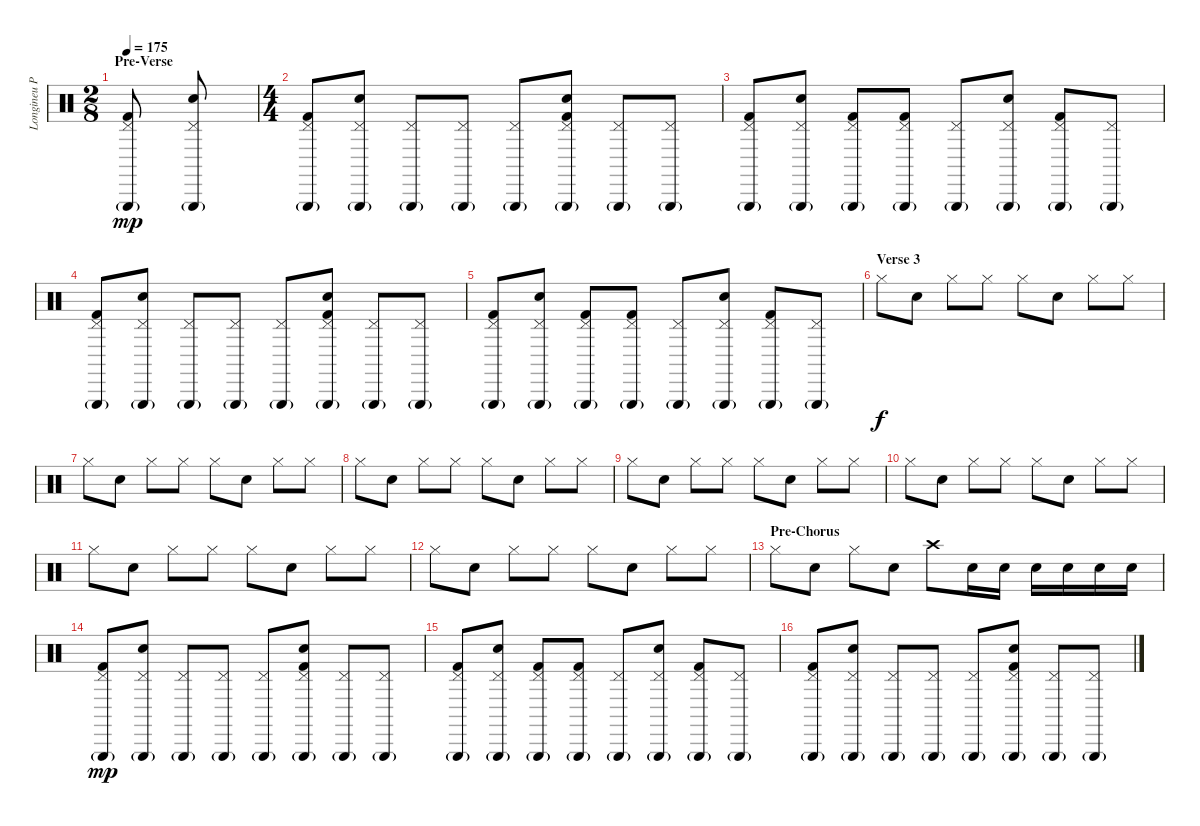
\track ("Longineu Parsons III Drums" "Longineu P") {instrument percussion}
\staff {score}
\articulation defaults
\ts (2 8)
\section ("" "Pre-Verse")
\tempo 175
\clef neutral
\ks c
("Triangle (hit)"{g} "Pedal Hi-Hat (hit)" "Kick (hit) 2").8{dy mp} ("Triangle (hit)"{g} "Pedal Hi-Hat (hit)" "Electric Snare (hit)").8 |
\ts (4 4)
("Triangle (hit)"{g} "Pedal Hi-Hat (hit)" "Kick (hit) 2").8 ("Triangle (hit)"{g} "Pedal Hi-Hat (hit)" "Electric Snare (hit)").8 ("Triangle (hit)"{g} "Pedal Hi-Hat (hit)").8 ("Triangle (hit)"{g} "Pedal Hi-Hat (hit)").8 ("Triangle (hit)"{g} "Pedal Hi-Hat (hit)").8 ("Triangle (hit)"{g} "Pedal Hi-Hat (hit)" "Electric Snare (hit)" "Kick (hit) 2").8 ("Triangle (hit)"{g} "Pedal Hi-Hat (hit)").8 ("Triangle (hit)"{g} "Pedal Hi-Hat (hit)").8 |
("Triangle (hit)"{g} "Pedal Hi-Hat (hit)" "Kick (hit) 2").8 ("Triangle (hit)"{g} "Pedal Hi-Hat (hit)" "Electric Snare (hit)").8 ("Triangle (hit)"{g} "Pedal Hi-Hat (hit)" "Kick (hit) 2").8 ("Triangle (hit)"{g} "Pedal Hi-Hat (hit)" "Kick (hit) 2").8 ("Triangle (hit)"{g} "Pedal Hi-Hat (hit)").8 ("Triangle (hit)"{g} "Pedal Hi-Hat (hit)" "Electric Snare (hit)").8 ("Triangle (hit)"{g} "Pedal Hi-Hat (hit)" "Kick (hit) 2").8 ("Triangle (hit)"{g} "Pedal Hi-Hat (hit)").8 |
("Triangle (hit)"{g} "Pedal Hi-Hat (hit)" "Kick (hit) 2").8 ("Triangle (hit)"{g} "Pedal Hi-Hat (hit)" "Electric Snare (hit)").8 ("Triangle (hit)"{g} "Pedal Hi-Hat (hit)").8 ("Triangle (hit)"{g} "Pedal Hi-Hat (hit)").8 ("Triangle (hit)"{g} "Pedal Hi-Hat (hit)").8 ("Triangle (hit)"{g} "Pedal Hi-Hat (hit)" "Electric Snare (hit)" "Kick (hit) 2").8 ("Triangle (hit)"{g} "Pedal Hi-Hat (hit)").8 ("Triangle (hit)"{g} "Pedal Hi-Hat (hit)").8 |
("Triangle (hit)"{g} "Pedal Hi-Hat (hit)" "Kick (hit) 2").8 ("Triangle (hit)"{g} "Pedal Hi-Hat (hit)" "Electric Snare (hit)").8 ("Triangle (hit)"{g} "Pedal Hi-Hat (hit)" "Kick (hit) 2").8 ("Triangle (hit)"{g} "Pedal Hi-Hat (hit)" "Kick (hit) 2").8 ("Triangle (hit)"{g} "Pedal Hi-Hat (hit)").8 ("Triangle (hit)"{g} "Pedal Hi-Hat (hit)" "Electric Snare (hit)").8 ("Triangle (hit)"{g} "Pedal Hi-Hat (hit)" "Kick (hit) 2").8 ("Triangle (hit)"{g} "Pedal Hi-Hat (hit)").8 |
\section ("" "Verse 3")
"Hi-Hat (closed)".8{dy f} "Snare (hit) 2".8 "Hi-Hat (closed)".8 "Hi-Hat (closed)".8 "Hi-Hat (closed)".8 "Snare (hit) 2".8 "Hi-Hat (closed)".8 "Hi-Hat (closed)".8 |
"Hi-Hat (closed)".8 "Snare (hit) 2".8 "Hi-Hat (closed)".8 "Hi-Hat (closed)".8 "Hi-Hat (closed)".8 "Snare (hit) 2".8 "Hi-Hat (closed)".8 "Hi-Hat (closed)".8 |
"Hi-Hat (closed)".8 "Snare (hit) 2".8 "Hi-Hat (closed)".8 "Hi-Hat (closed)".8 "Hi-Hat (closed)".8 "Snare (hit) 2".8 "Hi-Hat (closed)".8 "Hi-Hat (closed)".8 |
"Hi-Hat (closed)".8 "Snare (hit) 2".8 "Hi-Hat (closed)".8 "Hi-Hat (closed)".8 "Hi-Hat (closed)".8 "Snare (hit) 2".8 "Hi-Hat (closed)".8 "Hi-Hat (closed)".8 |
"Hi-Hat (closed)".8 "Snare (hit) 2".8 "Hi-Hat (closed)".8 "Hi-Hat (closed)".8 "Hi-Hat (closed)".8 "Snare (hit) 2".8 "Hi-Hat (closed)".8 "Hi-Hat (closed)".8 |
"Hi-Hat (closed)".8 "Snare (hit) 2".8 "Hi-Hat (closed)".8 "Hi-Hat (closed)".8 "Hi-Hat (closed)".8 "Snare (hit) 2".8 "Hi-Hat (closed)".8 "Hi-Hat (closed)".8 |
"Hi-Hat (closed)".8 "Snare (hit) 2".8 "Hi-Hat (closed)".8 "Hi-Hat (closed)".8 "Hi-Hat (closed)".8 "Snare (hit) 2".8 "Hi-Hat (closed)".8 "Hi-Hat (closed)".8 |
\section ("" "Pre-Chorus")
"Hi-Hat (closed)".8 "Snare (hit) 2".8 "Hi-Hat (closed)".8 "Snare (hit) 2".8 "Crash high (hit)".8 "Snare (hit) 2".16 "Snare (hit) 2".16 "Snare (hit) 2".16 "Snare (hit) 2".16 "Snare (hit) 2".16 "Snare (hit) 2".16 |
("Triangle (hit)"{g} "Pedal Hi-Hat (hit)" "Kick (hit) 2").8{dy mp} ("Triangle (hit)"{g} "Pedal Hi-Hat (hit)" "Electric Snare (hit)").8 ("Triangle (hit)"{g} "Pedal Hi-Hat (hit)").8 ("Triangle (hit)"{g} "Pedal Hi-Hat (hit)").8 ("Triangle (hit)"{g} "Pedal Hi-Hat (hit)").8 ("Triangle (hit)"{g} "Pedal Hi-Hat (hit)" "Electric Snare (hit)" "Kick (hit) 2").8 ("Triangle (hit)"{g} "Pedal Hi-Hat (hit)").8 ("Triangle (hit)"{g} "Pedal Hi-Hat (hit)").8 |
("Triangle (hit)"{g} "Pedal Hi-Hat (hit)" "Kick (hit) 2").8 ("Triangle (hit)"{g} "Pedal Hi-Hat (hit)" "Electric Snare (hit)").8 ("Triangle (hit)"{g} "Pedal Hi-Hat (hit)" "Kick (hit) 2").8 ("Triangle (hit)"{g} "Pedal Hi-Hat (hit)" "Kick (hit) 2").8 ("Triangle (hit)"{g} "Pedal Hi-Hat (hit)").8 ("Triangle (hit)"{g} "Pedal Hi-Hat (hit)" "Electric Snare (hit)").8 ("Triangle (hit)"{g} "Pedal Hi-Hat (hit)" "Kick (hit) 2").8 ("Triangle (hit)"{g} "Pedal Hi-Hat (hit)").8 |
("Triangle (hit)"{g} "Pedal Hi-Hat (hit)" "Kick (hit) 2").8 ("Triangle (hit)"{g} "Pedal Hi-Hat (hit)" "Electric Snare (hit)").8 ("Triangle (hit)"{g} "Pedal Hi-Hat (hit)").8 ("Triangle (hit)"{g} "Pedal Hi-Hat (hit)").8 ("Triangle (hit)"{g} "Pedal Hi-Hat (hit)").8 ("Triangle (hit)"{g} "Pedal Hi-Hat (hit)" "Electric Snare (hit)" "Kick (hit) 2").8 ("Triangle (hit)"{g} "Pedal Hi-Hat (hit)").8 ("Triangle (hit)"{g} "Pedal Hi-Hat (hit)").8
